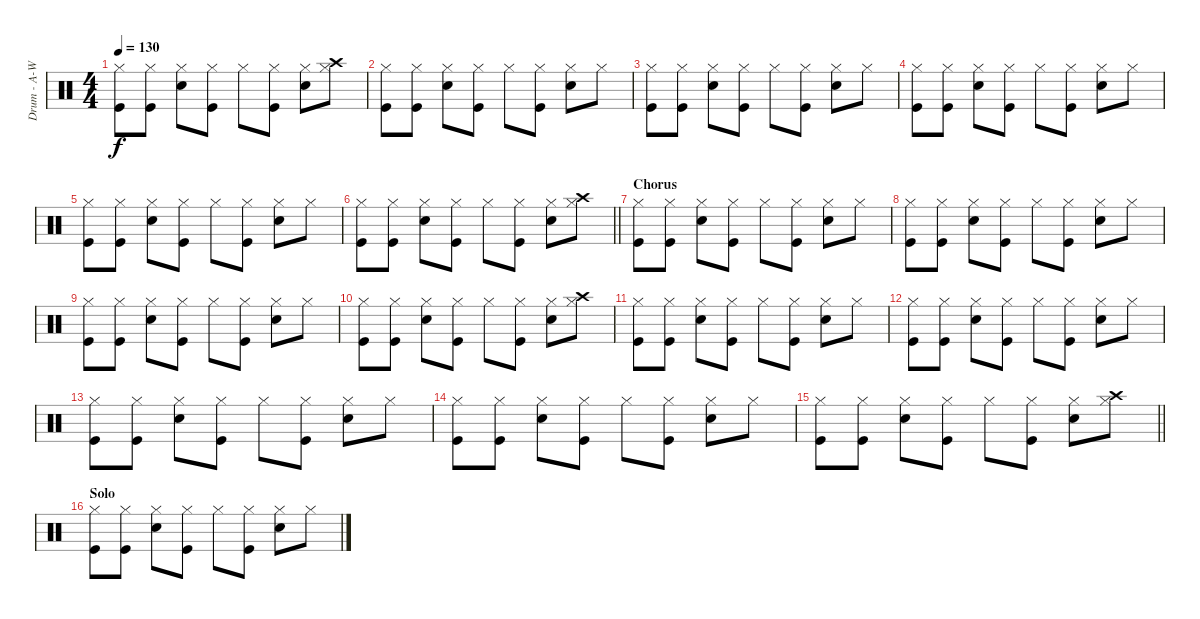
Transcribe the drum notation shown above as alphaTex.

\track ("Drum - A-Word" "Drum - A-W") {instrument percussion}
\staff {score}
\articulation defaults
\ts (4 4)
\tempo 130
\clef neutral
\ks c
("Hi-Hat (closed)" "Kick (hit)").8{dy f} ("Hi-Hat (closed)" "Kick (hit)").8 ("Hi-Hat (closed)" "Snare (hit) 2").8 ("Hi-Hat (closed)" "Kick (hit)").8 "Hi-Hat (closed)".8 ("Hi-Hat (closed)" "Kick (hit)").8 ("Hi-Hat (closed)" "Snare (hit) 2").8 ("Hi-Hat (closed)" "Crash high (hit)").8 |
("Hi-Hat (closed)" "Kick (hit)").8 ("Hi-Hat (closed)" "Kick (hit)").8 ("Hi-Hat (closed)" "Snare (hit) 2").8 ("Hi-Hat (closed)" "Kick (hit)").8 "Hi-Hat (closed)".8 ("Hi-Hat (closed)" "Kick (hit)").8 ("Hi-Hat (closed)" "Snare (hit) 2").8 "Hi-Hat (closed)".8 |
("Hi-Hat (closed)" "Kick (hit)").8 ("Hi-Hat (closed)" "Kick (hit)").8 ("Hi-Hat (closed)" "Snare (hit) 2").8 ("Hi-Hat (closed)" "Kick (hit)").8 "Hi-Hat (closed)".8 ("Hi-Hat (closed)" "Kick (hit)").8 ("Hi-Hat (closed)" "Snare (hit) 2").8 "Hi-Hat (closed)".8 |
("Hi-Hat (closed)" "Kick (hit)").8 ("Hi-Hat (closed)" "Kick (hit)").8 ("Hi-Hat (closed)" "Snare (hit) 2").8 ("Hi-Hat (closed)" "Kick (hit)").8 "Hi-Hat (closed)".8 ("Hi-Hat (closed)" "Kick (hit)").8 ("Hi-Hat (closed)" "Snare (hit) 2").8 "Hi-Hat (closed)".8 |
("Hi-Hat (closed)" "Kick (hit)").8 ("Hi-Hat (closed)" "Kick (hit)").8 ("Hi-Hat (closed)" "Snare (hit) 2").8 ("Hi-Hat (closed)" "Kick (hit)").8 "Hi-Hat (closed)".8 ("Hi-Hat (closed)" "Kick (hit)").8 ("Hi-Hat (closed)" "Snare (hit) 2").8 "Hi-Hat (closed)".8 |
\barLineRight lightlight
("Hi-Hat (closed)" "Kick (hit)").8 ("Hi-Hat (closed)" "Kick (hit)").8 ("Hi-Hat (closed)" "Snare (hit) 2").8 ("Hi-Hat (closed)" "Kick (hit)").8 "Hi-Hat (closed)".8 ("Hi-Hat (closed)" "Kick (hit)").8 ("Hi-Hat (closed)" "Snare (hit) 2").8 ("Hi-Hat (closed)" "Crash high (hit)").8 |
\section ("" "Chorus")
("Hi-Hat (closed)" "Kick (hit)").8 ("Hi-Hat (closed)" "Kick (hit)").8 ("Hi-Hat (closed)" "Snare (hit) 2").8 ("Hi-Hat (closed)" "Kick (hit)").8 "Hi-Hat (closed)".8 ("Hi-Hat (closed)" "Kick (hit)").8 ("Hi-Hat (closed)" "Snare (hit) 2").8 "Hi-Hat (closed)".8 |
("Hi-Hat (closed)" "Kick (hit)").8 ("Hi-Hat (closed)" "Kick (hit)").8 ("Hi-Hat (closed)" "Snare (hit) 2").8 ("Hi-Hat (closed)" "Kick (hit)").8 "Hi-Hat (closed)".8 ("Hi-Hat (closed)" "Kick (hit)").8 ("Hi-Hat (closed)" "Snare (hit) 2").8 "Hi-Hat (closed)".8 |
("Hi-Hat (closed)" "Kick (hit)").8 ("Hi-Hat (closed)" "Kick (hit)").8 ("Hi-Hat (closed)" "Snare (hit) 2").8 ("Hi-Hat (closed)" "Kick (hit)").8 "Hi-Hat (closed)".8 ("Hi-Hat (closed)" "Kick (hit)").8 ("Hi-Hat (closed)" "Snare (hit) 2").8 "Hi-Hat (closed)".8 |
("Hi-Hat (closed)" "Kick (hit)").8 ("Hi-Hat (closed)" "Kick (hit)").8 ("Hi-Hat (closed)" "Snare (hit) 2").8 ("Hi-Hat (closed)" "Kick (hit)").8 "Hi-Hat (closed)".8 ("Hi-Hat (closed)" "Kick (hit)").8 ("Hi-Hat (closed)" "Snare (hit) 2").8 ("Hi-Hat (closed)" "Crash high (hit)").8 |
("Hi-Hat (closed)" "Kick (hit)").8 ("Hi-Hat (closed)" "Kick (hit)").8 ("Hi-Hat (closed)" "Snare (hit) 2").8 ("Hi-Hat (closed)" "Kick (hit)").8 "Hi-Hat (closed)".8 ("Hi-Hat (closed)" "Kick (hit)").8 ("Hi-Hat (closed)" "Snare (hit) 2").8 "Hi-Hat (closed)".8 |
("Hi-Hat (closed)" "Kick (hit)").8 ("Hi-Hat (closed)" "Kick (hit)").8 ("Hi-Hat (closed)" "Snare (hit) 2").8 ("Hi-Hat (closed)" "Kick (hit)").8 "Hi-Hat (closed)".8 ("Hi-Hat (closed)" "Kick (hit)").8 ("Hi-Hat (closed)" "Snare (hit) 2").8 "Hi-Hat (closed)".8 |
("Hi-Hat (closed)" "Kick (hit)").8 ("Hi-Hat (closed)" "Kick (hit)").8 ("Hi-Hat (closed)" "Snare (hit) 2").8 ("Hi-Hat (closed)" "Kick (hit)").8 "Hi-Hat (closed)".8 ("Hi-Hat (closed)" "Kick (hit)").8 ("Hi-Hat (closed)" "Snare (hit) 2").8 "Hi-Hat (closed)".8 |
("Hi-Hat (closed)" "Kick (hit)").8 ("Hi-Hat (closed)" "Kick (hit)").8 ("Hi-Hat (closed)" "Snare (hit) 2").8 ("Hi-Hat (closed)" "Kick (hit)").8 "Hi-Hat (closed)".8 ("Hi-Hat (closed)" "Kick (hit)").8 ("Hi-Hat (closed)" "Snare (hit) 2").8 "Hi-Hat (closed)".8 |
\barLineRight lightlight
("Hi-Hat (closed)" "Kick (hit)").8 ("Hi-Hat (closed)" "Kick (hit)").8 ("Hi-Hat (closed)" "Snare (hit) 2").8 ("Hi-Hat (closed)" "Kick (hit)").8 "Hi-Hat (closed)".8 ("Hi-Hat (closed)" "Kick (hit)").8 ("Hi-Hat (closed)" "Snare (hit) 2").8 ("Hi-Hat (closed)" "Crash high (hit)").8 |
\section ("" "Solo")
("Hi-Hat (closed)" "Kick (hit)").8 ("Hi-Hat (closed)" "Kick (hit)").8 ("Hi-Hat (closed)" "Snare (hit) 2").8 ("Hi-Hat (closed)" "Kick (hit)").8 "Hi-Hat (closed)".8 ("Hi-Hat (closed)" "Kick (hit)").8 ("Hi-Hat (closed)" "Snare (hit) 2").8 "Hi-Hat (closed)".8
